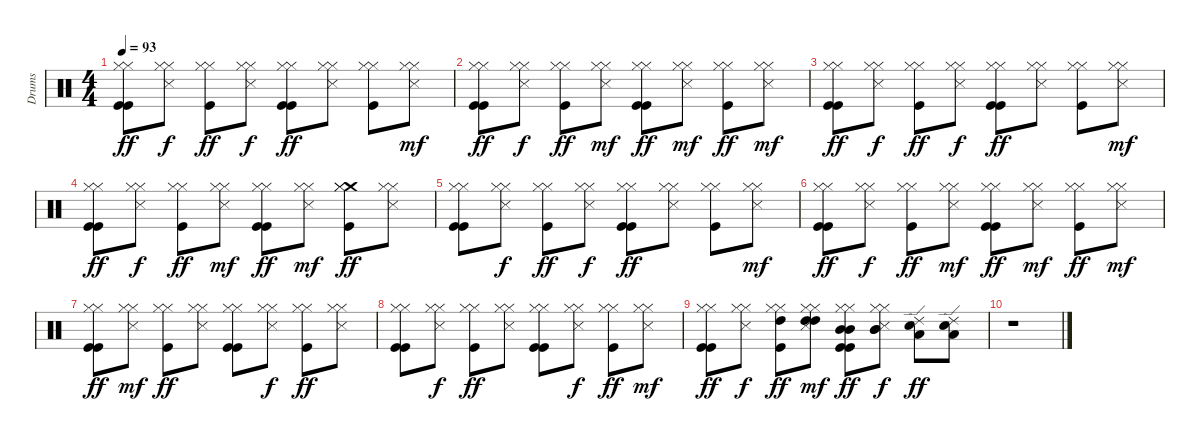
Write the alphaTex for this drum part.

\track ("Drums" "Drums") {instrument percussion}
\staff {score}
\articulation defaults
\ts (4 4)
\tempo 93
\clef neutral
\ks c
("Kick (hit)" "Hi-Hat (closed)" "Kick (hit)" "Hi-Hat (closed)").8{dy ff} ("Hi-Hat (closed)" "Snare (side stick) 3" "Hi-Hat (closed)").8{dy f} ("Hi-Hat (closed)" "Kick (hit)" "Hi-Hat (closed)").8{dy ff} ("Hi-Hat (closed)" "Snare (side stick) 3" "Hi-Hat (closed)").8{dy f} ("Kick (hit)" "Hi-Hat (closed)" "Kick (hit)" "Hi-Hat (closed)").8{dy ff} ("Hi-Hat (closed)" "Snare (side stick) 3" "Hi-Hat (closed)").8 ("Hi-Hat (closed)" "Kick (hit)" "Hi-Hat (closed)").8 ("Hi-Hat (closed)" "Snare (side stick) 3" "Hi-Hat (closed)").8{dy mf} |
("Kick (hit)" "Hi-Hat (closed)" "Kick (hit)" "Hi-Hat (closed)").8{dy ff} ("Hi-Hat (closed)" "Snare (side stick) 3" "Hi-Hat (closed)").8{dy f} ("Hi-Hat (closed)" "Kick (hit)" "Hi-Hat (closed)").8{dy ff} ("Hi-Hat (closed)" "Snare (side stick) 3" "Hi-Hat (closed)").8{dy mf} ("Kick (hit)" "Hi-Hat (closed)" "Kick (hit)" "Hi-Hat (closed)").8{dy ff} ("Snare (side stick) 3" "Hi-Hat (closed)" "Hi-Hat (closed)").8{dy mf} ("Hi-Hat (closed)" "Kick (hit)" "Hi-Hat (closed)").8{dy ff} ("Hi-Hat (closed)" "Snare (side stick) 3" "Hi-Hat (closed)").8{dy mf} |
("Kick (hit)" "Hi-Hat (closed)" "Kick (hit)" "Hi-Hat (closed)").8{dy ff} ("Hi-Hat (closed)" "Snare (side stick) 3" "Hi-Hat (closed)").8{dy f} ("Hi-Hat (closed)" "Kick (hit)" "Hi-Hat (closed)").8{dy ff} ("Hi-Hat (closed)" "Snare (side stick) 3" "Hi-Hat (closed)").8{dy f} ("Kick (hit)" "Hi-Hat (closed)" "Kick (hit)" "Hi-Hat (closed)").8{dy ff} ("Hi-Hat (closed)" "Snare (side stick) 3" "Hi-Hat (closed)").8 ("Hi-Hat (closed)" "Kick (hit)" "Hi-Hat (closed)").8 ("Hi-Hat (closed)" "Snare (side stick) 3" "Hi-Hat (closed)").8{dy mf} |
("Kick (hit)" "Hi-Hat (closed)" "Kick (hit)" "Hi-Hat (closed)").8{dy ff} ("Hi-Hat (closed)" "Snare (side stick) 3" "Hi-Hat (closed)").8{dy f} ("Hi-Hat (closed)" "Kick (hit)" "Hi-Hat (closed)").8{dy ff} ("Snare (side stick) 3" "Hi-Hat (closed)" "Hi-Hat (closed)").8{dy mf} ("Kick (hit)" "Hi-Hat (closed)" "Kick (hit)" "Hi-Hat (closed)").8{dy ff} ("Snare (side stick) 3" "Hi-Hat (closed)" "Hi-Hat (closed)").8{dy mf} ("Crash medium (hit)" "Hi-Hat (closed)" "Kick (hit)" "Hi-Hat (closed)").8{dy ff} ("Snare (side stick) 3" "Hi-Hat (closed)" "Hi-Hat (closed)").8 |
("Kick (hit)" "Hi-Hat (closed)" "Kick (hit)" "Hi-Hat (closed)").8 ("Hi-Hat (closed)" "Snare (side stick) 3" "Hi-Hat (closed)").8{dy f} ("Hi-Hat (closed)" "Kick (hit)" "Hi-Hat (closed)").8{dy ff} ("Hi-Hat (closed)" "Snare (side stick) 3" "Hi-Hat (closed)").8{dy f} ("Kick (hit)" "Hi-Hat (closed)" "Kick (hit)" "Hi-Hat (closed)").8{dy ff} ("Snare (side stick) 3" "Hi-Hat (closed)" "Hi-Hat (closed)").8 ("Hi-Hat (closed)" "Kick (hit)" "Hi-Hat (closed)").8 ("Hi-Hat (closed)" "Snare (side stick) 3" "Hi-Hat (closed)").8{dy mf} |
("Kick (hit)" "Hi-Hat (closed)" "Kick (hit)" "Hi-Hat (closed)").8{dy ff} ("Snare (side stick) 3" "Hi-Hat (closed)" "Hi-Hat (closed)").8{dy f} ("Hi-Hat (closed)" "Kick (hit)" "Hi-Hat (closed)").8{dy ff} ("Hi-Hat (closed)" "Snare (side stick) 3" "Hi-Hat (closed)").8{dy mf} ("Kick (hit)" "Hi-Hat (closed)" "Kick (hit)" "Hi-Hat (closed)").8{dy ff} ("Hi-Hat (closed)" "Snare (side stick) 3" "Hi-Hat (closed)").8{dy mf} ("Hi-Hat (closed)" "Kick (hit)" "Hi-Hat (closed)").8{dy ff} ("Snare (side stick) 3" "Hi-Hat (closed)" "Hi-Hat (closed)").8{dy mf} |
("Kick (hit)" "Hi-Hat (closed)" "Kick (hit)" "Hi-Hat (closed)").8{dy ff} ("Snare (side stick) 3" "Hi-Hat (closed)" "Hi-Hat (closed)").8{dy mf} ("Hi-Hat (closed)" "Kick (hit)" "Hi-Hat (closed)").8{dy ff} ("Snare (side stick) 3" "Hi-Hat (closed)" "Hi-Hat (closed)").8 ("Kick (hit)" "Hi-Hat (closed)" "Kick (hit)" "Hi-Hat (closed)").8 ("Snare (side stick) 3" "Hi-Hat (closed)" "Hi-Hat (closed)").8{dy f} ("Hi-Hat (closed)" "Kick (hit)" "Hi-Hat (closed)").8{dy ff} ("Snare (side stick) 3" "Hi-Hat (closed)" "Hi-Hat (closed)").8 |
("Kick (hit)" "Hi-Hat (closed)" "Kick (hit)" "Hi-Hat (closed)").8 ("Snare (side stick) 3" "Hi-Hat (closed)" "Hi-Hat (closed)").8{dy f} ("Hi-Hat (closed)" "Kick (hit)" "Hi-Hat (closed)").8{dy ff} ("Snare (side stick) 3" "Hi-Hat (closed)" "Hi-Hat (closed)").8 ("Kick (hit)" "Hi-Hat (closed)" "Kick (hit)" "Hi-Hat (closed)").8 ("Hi-Hat (closed)" "Snare (side stick) 3" "Hi-Hat (closed)").8{dy f} ("Hi-Hat (closed)" "Kick (hit)" "Hi-Hat (closed)").8{dy ff} ("Hi-Hat (closed)" "Snare (side stick) 3" "Hi-Hat (closed)").8{dy mf} |
("Kick (hit)" "Hi-Hat (closed)" "Kick (hit)" "Hi-Hat (closed)").8{dy ff} ("Hi-Hat (closed)" "Snare (side stick) 3" "Hi-Hat (closed)").8{dy f} ("Hi-Hat (closed)" "Kick (hit)" "High Tom (hit)" "Hi-Hat (closed)").8{dy ff} ("Hi-Hat (closed)" "High Tom (hit)" "Snare (side stick) 3" "High Tom (hit)" "Hi-Hat (closed)").8{dy mf} ("Kick (hit)" "Hi-Hat (closed)" "Mid Tom (hit)" "Kick (hit)" "Hi-Hat (closed)" "Mid Tom (hit)").8{dy ff} ("Hi-Hat (closed)" "Mid Tom (hit)" "Snare (side stick) 3" "Hi-Hat (closed)" "Mid Tom (hit)").8{dy f} ("Ride (edge) 2" "Snare (hit) 2" "Low Tom (hit)").8{dy ff} ("Ride (edge) 2" "Low Tom (hit)" "Snare (hit) 2").8 |
r.1
